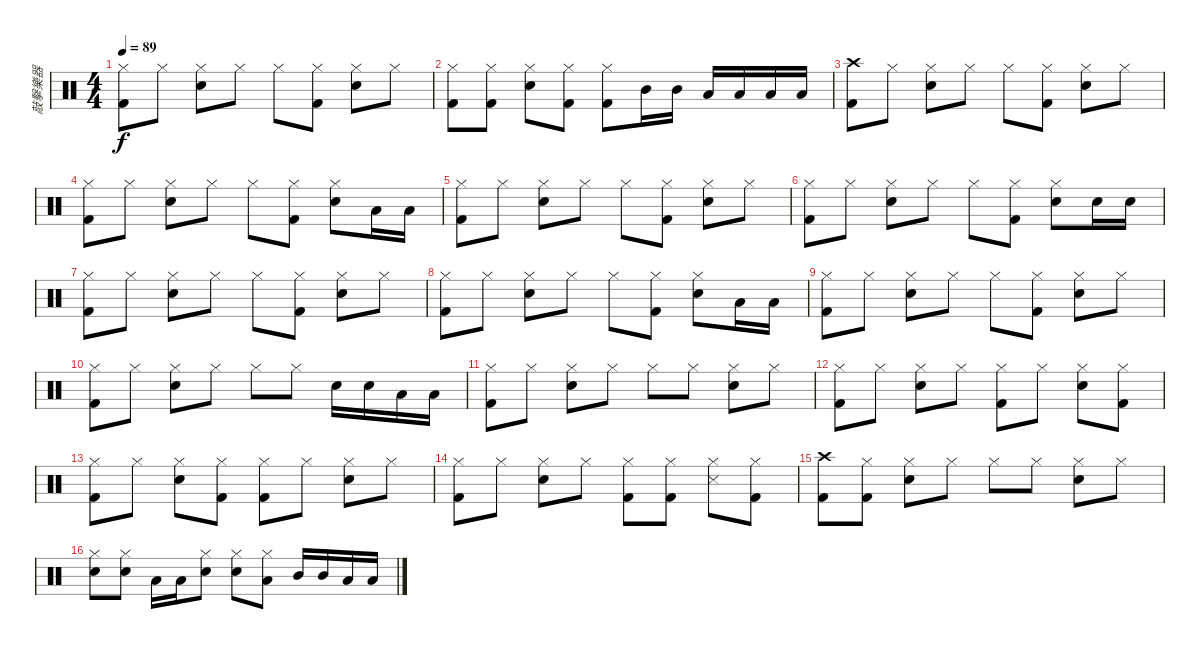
\track ("敲擊樂器" "敲擊樂器") {instrument percussion}
\staff {score}
\articulation defaults
\ts (4 4)
\tempo 89
\clef neutral
\ks c
("Hi-Hat (closed)" "Kick (hit) 2").8{dy f} "Hi-Hat (closed)".8 ("Hi-Hat (closed)" "Snare (hit) 2").8 "Hi-Hat (closed)".8 "Hi-Hat (closed)".8 ("Hi-Hat (closed)" "Kick (hit) 2").8 ("Hi-Hat (closed)" "Snare (hit) 2").8 "Hi-Hat (closed)".8 |
("Hi-Hat (closed)" "Kick (hit) 2").8 ("Hi-Hat (closed)" "Kick (hit) 2").8 ("Hi-Hat (closed)" "Snare (hit) 2").8 ("Hi-Hat (closed)" "Kick (hit) 2").8 ("Hi-Hat (closed)" "Kick (hit) 2").8 "Mid Tom (hit)".16 "Mid Tom (hit)".16 "Low Tom (hit)".16 "Low Tom (hit)".16 "Low Floor Tom (hit)".16 "Low Floor Tom (hit)".16 |
("Crash high (hit)" "Kick (hit) 2").8 "Hi-Hat (closed)".8 ("Hi-Hat (closed)" "Snare (hit) 2").8 "Hi-Hat (closed)".8 "Hi-Hat (closed)".8 ("Hi-Hat (closed)" "Kick (hit) 2").8 ("Hi-Hat (closed)" "Snare (hit) 2").8 "Hi-Hat (closed)".8 |
("Hi-Hat (closed)" "Kick (hit) 2").8 "Hi-Hat (closed)".8 ("Hi-Hat (closed)" "Snare (hit) 2").8 "Hi-Hat (closed)".8 "Hi-Hat (closed)".8 ("Hi-Hat (closed)" "Kick (hit) 2").8 ("Hi-Hat (closed)" "Snare (hit) 2").8 "Low Tom (hit)".16 "Low Tom (hit)".16 |
("Hi-Hat (closed)" "Kick (hit) 2").8 "Hi-Hat (closed)".8 ("Hi-Hat (closed)" "Snare (hit) 2").8 "Hi-Hat (closed)".8 "Hi-Hat (closed)".8 ("Hi-Hat (closed)" "Kick (hit) 2").8 ("Hi-Hat (closed)" "Snare (hit) 2").8 "Hi-Hat (closed)".8 |
("Hi-Hat (closed)" "Kick (hit) 2").8 "Hi-Hat (closed)".8 ("Hi-Hat (closed)" "Snare (hit) 2").8 "Hi-Hat (closed)".8 "Hi-Hat (closed)".8 ("Hi-Hat (closed)" "Kick (hit) 2").8 ("Hi-Hat (closed)" "Snare (hit) 2").8 "Snare (hit) 2".16 "Snare (hit) 2".16 |
("Hi-Hat (closed)" "Kick (hit) 2").8 "Hi-Hat (closed)".8 ("Hi-Hat (closed)" "Snare (hit) 2").8 "Hi-Hat (closed)".8 "Hi-Hat (closed)".8 ("Hi-Hat (closed)" "Kick (hit) 2").8 ("Hi-Hat (closed)" "Snare (hit) 2").8 "Hi-Hat (closed)".8 |
("Hi-Hat (closed)" "Kick (hit) 2").8 "Hi-Hat (closed)".8 ("Hi-Hat (closed)" "Snare (hit) 2").8 "Hi-Hat (closed)".8 "Hi-Hat (closed)".8 ("Hi-Hat (closed)" "Kick (hit) 2").8 ("Hi-Hat (closed)" "Snare (hit) 2").8 "Low Tom (hit)".16 "Low Tom (hit)".16 |
("Hi-Hat (closed)" "Kick (hit) 2").8 "Hi-Hat (closed)".8 ("Hi-Hat (closed)" "Snare (hit) 2").8 "Hi-Hat (closed)".8 "Hi-Hat (closed)".8 ("Hi-Hat (closed)" "Kick (hit) 2").8 ("Hi-Hat (closed)" "Snare (hit) 2").8 "Hi-Hat (closed)".8 |
("Hi-Hat (closed)" "Kick (hit) 2").8 "Hi-Hat (closed)".8 ("Hi-Hat (closed)" "Snare (hit) 2").8 "Hi-Hat (closed)".8 "Hi-Hat (closed)".8 "Hi-Hat (closed)".8 "Snare (hit) 2".16 "Snare (hit) 2".16 "Low Tom (hit)".16 "Low Tom (hit)".16 |
("Hi-Hat (closed)" "Kick (hit) 2").8 "Hi-Hat (closed)".8 ("Hi-Hat (closed)" "Snare (hit) 2").8 "Hi-Hat (closed)".8 "Hi-Hat (closed)".8 "Hi-Hat (closed)".8 ("Hi-Hat (closed)" "Snare (hit) 2").8 "Hi-Hat (closed)".8 |
("Hi-Hat (closed)" "Kick (hit) 2").8 "Hi-Hat (closed)".8 ("Hi-Hat (closed)" "Snare (hit) 2").8 "Hi-Hat (closed)".8 ("Hi-Hat (closed)" "Kick (hit) 2").8 "Hi-Hat (closed)".8 ("Hi-Hat (closed)" "Snare (hit) 2").8 ("Hi-Hat (closed)" "Kick (hit) 2").8 |
("Hi-Hat (closed)" "Kick (hit) 2").8 "Hi-Hat (closed)".8 ("Hi-Hat (closed)" "Snare (hit) 2").8 ("Hi-Hat (closed)" "Kick (hit) 2").8 ("Hi-Hat (closed)" "Kick (hit) 2").8 "Hi-Hat (closed)".8 ("Hi-Hat (closed)" "Snare (hit) 2").8 "Hi-Hat (closed)".8 |
("Hi-Hat (closed)" "Kick (hit) 2").8 "Hi-Hat (closed)".8 ("Hi-Hat (closed)" "Snare (hit) 2").8 "Hi-Hat (closed)".8 ("Hi-Hat (closed)" "Kick (hit) 2").8 ("Hi-Hat (closed)" "Kick (hit) 2").8 ("Hi-Hat (closed)" "Snare (side stick) 3").8 ("Hi-Hat (closed)" "Kick (hit) 2").8 |
("Crash high (hit)" "Kick (hit) 2").8 ("Hi-Hat (closed)" "Kick (hit) 2").8 ("Hi-Hat (closed)" "Snare (hit) 2").8 "Hi-Hat (closed)".8 "Hi-Hat (closed)".8 "Hi-Hat (closed)".8 ("Hi-Hat (closed)" "Snare (hit) 2").8 "Hi-Hat (closed)".8 |
("Hi-Hat (closed)" "Snare (hit) 2").8 ("Hi-Hat (closed)" "Snare (hit) 2").8 "Low Tom (hit)".16 "Low Tom (hit)".16 ("Hi-Hat (closed)" "Snare (hit) 2").8 ("Hi-Hat (closed)" "Snare (hit) 2").8 ("Hi-Hat (closed)" "Low Tom (hit)").8 "Mid Tom (hit)".16 "Mid Tom (hit)".16 "Low Tom (hit)".16 "Low Tom (hit)".16
